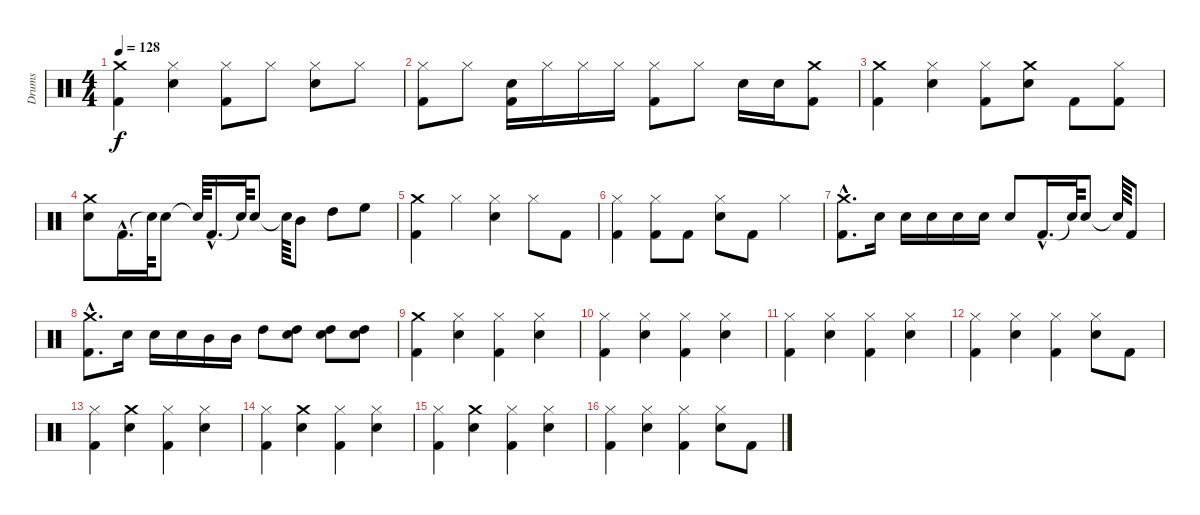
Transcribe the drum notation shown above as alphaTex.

\track ("Drums" "Drums") {instrument percussion}
\staff {score}
\articulation defaults
\ts (4 4)
\tempo 128
\clef neutral
\ks c
("Kick (hit) 2" "Crash medium (hit)").4{dy f} ("Hi-Hat (closed)" "Snare (hit) 2").4 ("Hi-Hat (closed)" "Kick (hit) 2").8 "Hi-Hat (closed)".8 ("Snare (hit) 2" "Hi-Hat (closed)").8 "Hi-Hat (closed)".8 |
("Kick (hit) 2" "Hi-Hat (closed)").8 "Hi-Hat (closed)".8 ("Kick (hit) 2" "Snare (hit) 2").16 "Hi-Hat (closed)".16 "Hi-Hat (closed)".16 "Hi-Hat (closed)".16 ("Hi-Hat (closed)" "Kick (hit) 2").8 "Hi-Hat (closed)".8 "Snare (hit) 2".16 "Snare (hit) 2".16 ("Crash medium (hit)" "Kick (hit) 2").8 |
("Crash medium (hit)" "Kick (hit) 2").4 ("Snare (hit) 2" "Hi-Hat (closed)").4 ("Kick (hit) 2" "Hi-Hat (closed)").8 ("Crash medium (hit)" "Snare (hit) 2").8 "Kick (hit) 2".8 ("Hi-Hat (closed)" "Kick (hit) 2").8 |
("Crash medium (hit)" "Snare (hit) 2").8 "Kick (hit) 2"{hac}.16{d} "Snare (hit)"{t}.64 "Snare (hit) 2".8 "Snare (hit)"{t}.64 "Kick (hit) 2"{hac}.16{d} "Snare (hit)"{t}.64 "Snare (hit) 2".8 "Snare (hit)"{t}.64 "Mid Tom (hit)".8 "High Tom (hit)".8 "High Floor Tom (hit)".8 |
("Kick (hit) 2" "Crash medium (hit)").4 "Hi-Hat (closed)".4 ("Snare (hit) 2" "Hi-Hat (closed)").4 "Hi-Hat (closed)".8 "Kick (hit) 2".8 |
("Kick (hit) 2" "Hi-Hat (closed)").4 ("Kick (hit) 2" "Hi-Hat (closed)").8 "Kick (hit) 2".8 ("Snare (hit) 2" "Hi-Hat (closed)").8 "Kick (hit) 2".8 "Hi-Hat (closed)".4 |
("Kick (hit) 2"{hac} "Crash medium (hit)"{hac}).8{d} "Snare (hit) 2".16 "Snare (hit) 2".16 "Snare (hit) 2".16 "Snare (hit) 2".16 "Snare (hit) 2".16 "Snare (hit) 2".8 "Kick (hit) 2"{hac}.16{d} "Snare (hit)"{t}.64 "Snare (hit) 2".8 "Snare (hit)"{t}.64 "Kick (hit) 2".8 |
("Kick (hit) 2"{hac} "Crash medium (hit)"{hac}).8{d} "Snare (hit) 2".16 "Snare (hit) 2".16 "Snare (hit) 2".16 "Mid Tom (hit)".16 "Mid Tom (hit)".16 "High Tom (hit)".8 ("Snare (hit) 2" "High Tom (hit)").8 ("Snare (hit) 2" "High Tom (hit)").8 ("Snare (hit) 2" "High Tom (hit)").8 |
("Kick (hit) 2" "Crash medium (hit)").4 ("Hi-Hat (closed)" "Snare (hit) 2").4 ("Hi-Hat (closed)" "Kick (hit) 2").4 ("Snare (hit) 2" "Hi-Hat (closed)").4 |
("Hi-Hat (closed)" "Kick (hit) 2").4 ("Snare (hit) 2" "Hi-Hat (closed)").4 ("Kick (hit) 2" "Hi-Hat (closed)").4 ("Snare (hit) 2" "Hi-Hat (closed)").4 |
("Hi-Hat (closed)" "Kick (hit) 2").4 ("Snare (hit) 2" "Hi-Hat (closed)").4 ("Kick (hit) 2" "Hi-Hat (closed)").4 ("Snare (hit) 2" "Hi-Hat (closed)").4 |
("Kick (hit) 2" "Hi-Hat (closed)").4 ("Snare (hit) 2" "Hi-Hat (closed)").4 ("Kick (hit) 2" "Hi-Hat (closed)").4 ("Snare (hit) 2" "Hi-Hat (closed)").8 "Kick (hit) 2".8 |
("Kick (hit) 2" "Hi-Hat (closed)").4 ("Crash medium (hit)" "Snare (hit) 2").4 ("Hi-Hat (closed)" "Kick (hit) 2").4 ("Snare (hit) 2" "Hi-Hat (closed)").4 |
("Kick (hit) 2" "Hi-Hat (closed)").4 ("Crash medium (hit)" "Snare (hit) 2").4 ("Hi-Hat (closed)" "Kick (hit) 2").4 ("Snare (hit) 2" "Hi-Hat (closed)").4 |
("Kick (hit) 2" "Hi-Hat (closed)").4 ("Crash medium (hit)" "Snare (hit) 2").4 ("Hi-Hat (closed)" "Kick (hit) 2").4 ("Snare (hit) 2" "Hi-Hat (closed)").4 |
("Kick (hit) 2" "Hi-Hat (closed)").4 ("Hi-Hat (closed)" "Snare (hit) 2").4 ("Hi-Hat (closed)" "Kick (hit) 2").4 ("Hi-Hat (closed)" "Snare (hit) 2").8 "Kick (hit) 2".8
